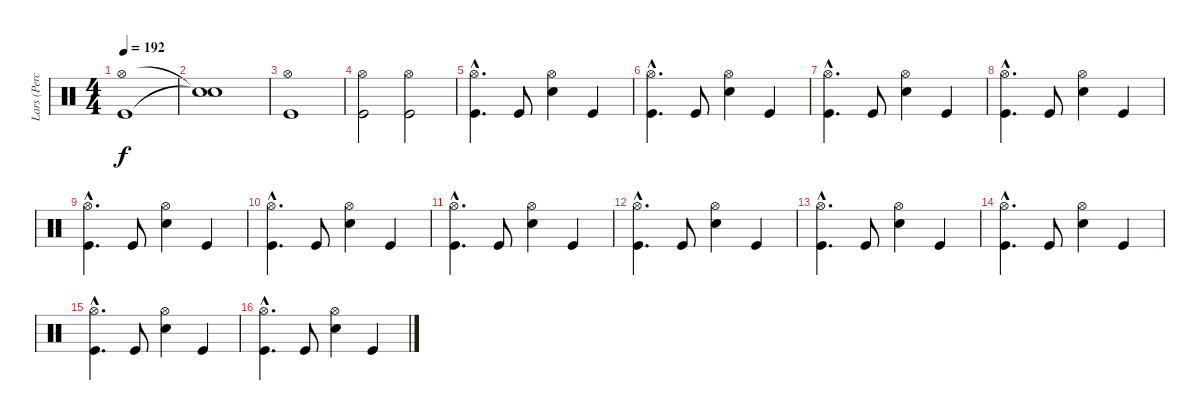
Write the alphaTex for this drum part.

\track ("Lars (Percussion)" "Lars (Perc") {instrument percussion}
\staff {score}
\articulation defaults
\ts (4 4)
\tempo 192
\clef neutral
\ks c
("Hi-Hat (open)" "Kick (hit)").1{dy f} |
("Snare (hit)"{t} "Snare (hit)"{t}).1 |
("Hi-Hat (open)" "Kick (hit)").1 |
("Hi-Hat (open)" "Kick (hit)").2 ("Hi-Hat (open)" "Kick (hit)").2 |
("Hi-Hat (open)"{hac} "Kick (hit)"{hac}).4{d} "Kick (hit)".8 ("Hi-Hat (open)" "Snare (hit) 2").4 "Kick (hit)".4 |
("Hi-Hat (open)"{hac} "Kick (hit)"{hac}).4{d} "Kick (hit)".8 ("Hi-Hat (open)" "Snare (hit) 2").4 "Kick (hit)".4 |
("Hi-Hat (open)"{hac} "Kick (hit)"{hac}).4{d} "Kick (hit)".8 ("Hi-Hat (open)" "Snare (hit) 2").4 "Kick (hit)".4 |
("Hi-Hat (open)"{hac} "Kick (hit)"{hac}).4{d} "Kick (hit)".8 ("Hi-Hat (open)" "Snare (hit) 2").4 "Kick (hit)".4 |
("Hi-Hat (open)"{hac} "Kick (hit)"{hac}).4{d} "Kick (hit)".8 ("Hi-Hat (open)" "Snare (hit) 2").4 "Kick (hit)".4 |
("Hi-Hat (open)"{hac} "Kick (hit)"{hac}).4{d} "Kick (hit)".8 ("Hi-Hat (open)" "Snare (hit) 2").4 "Kick (hit)".4 |
("Hi-Hat (open)"{hac} "Kick (hit)"{hac}).4{d} "Kick (hit)".8 ("Hi-Hat (open)" "Snare (hit) 2").4 "Kick (hit)".4 |
("Hi-Hat (open)"{hac} "Kick (hit)"{hac}).4{d} "Kick (hit)".8 ("Hi-Hat (open)" "Snare (hit) 2").4 "Kick (hit)".4 |
("Hi-Hat (open)"{hac} "Kick (hit)"{hac}).4{d} "Kick (hit)".8 ("Hi-Hat (open)" "Snare (hit) 2").4 "Kick (hit)".4 |
("Hi-Hat (open)"{hac} "Kick (hit)"{hac}).4{d} "Kick (hit)".8 ("Hi-Hat (open)" "Snare (hit) 2").4 "Kick (hit)".4 |
("Hi-Hat (open)"{hac} "Kick (hit)"{hac}).4{d} "Kick (hit)".8 ("Hi-Hat (open)" "Snare (hit) 2").4 "Kick (hit)".4 |
("Hi-Hat (open)"{hac} "Kick (hit)"{hac}).4{d} "Kick (hit)".8 ("Hi-Hat (open)" "Snare (hit) 2").4 "Kick (hit)".4
